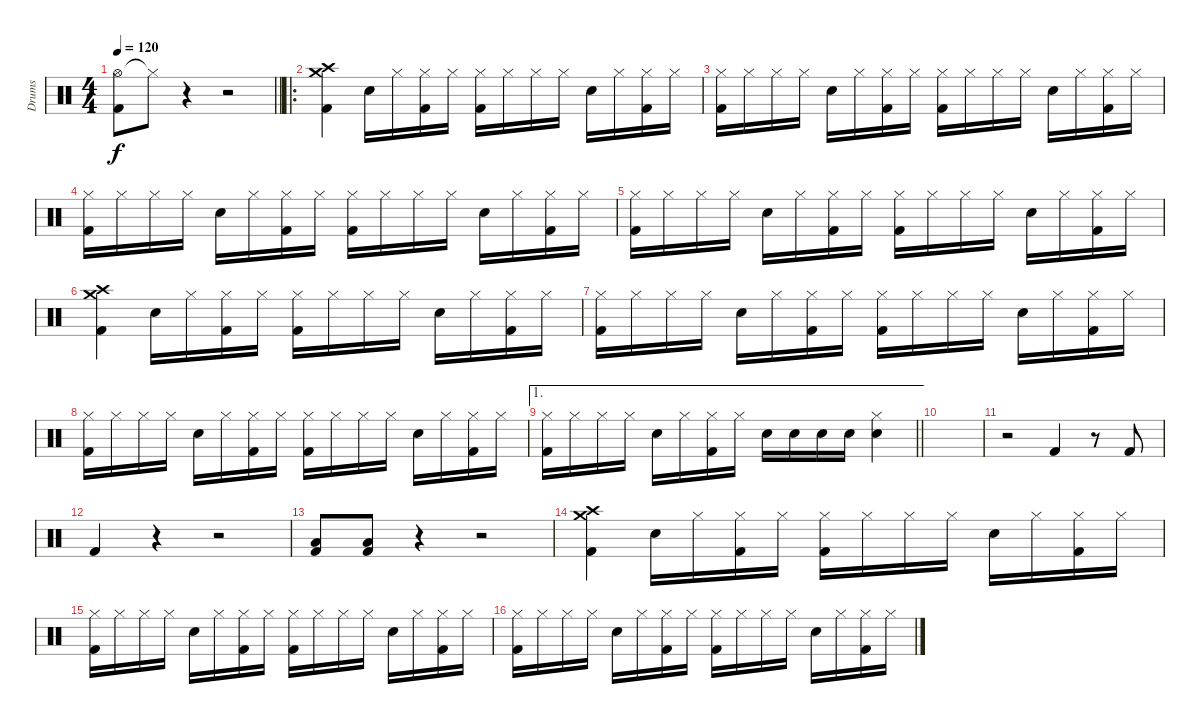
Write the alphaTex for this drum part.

\track ("Drums" "Drums") {instrument percussion}
\staff {score}
\articulation defaults
\ts (4 4)
\tempo 120
\clef neutral
\barLineRight lightlight
\ks c
("Hi-Hat (open)" "Kick (hit) 2").8{dy f} "Hi-Hat (closed)"{t}.8 r.4 r.2 |
\ro
("Crash medium (hit)" "Crash high (hit)" "Kick (hit) 2").4 "Snare (hit) 2".16 "Hi-Hat (closed)".16 ("Hi-Hat (closed)" "Kick (hit) 2").16 "Hi-Hat (closed)".16 ("Hi-Hat (closed)" "Kick (hit) 2").16 "Hi-Hat (closed)".16 "Hi-Hat (closed)".16 "Hi-Hat (closed)".16 "Snare (hit) 2".16 "Hi-Hat (closed)".16 ("Hi-Hat (closed)" "Kick (hit) 2").16 "Hi-Hat (closed)".16 |
("Hi-Hat (closed)" "Kick (hit) 2").16 "Hi-Hat (closed)".16 "Hi-Hat (closed)".16 "Hi-Hat (closed)".16 "Snare (hit) 2".16 "Hi-Hat (closed)".16 ("Hi-Hat (closed)" "Kick (hit) 2").16 "Hi-Hat (closed)".16 ("Hi-Hat (closed)" "Kick (hit) 2").16 "Hi-Hat (closed)".16 "Hi-Hat (closed)".16 "Hi-Hat (closed)".16 "Snare (hit) 2".16 "Hi-Hat (closed)".16 ("Hi-Hat (closed)" "Kick (hit) 2").16 "Hi-Hat (closed)".16 |
("Hi-Hat (closed)" "Kick (hit) 2").16 "Hi-Hat (closed)".16 "Hi-Hat (closed)".16 "Hi-Hat (closed)".16 "Snare (hit) 2".16 "Hi-Hat (closed)".16 ("Hi-Hat (closed)" "Kick (hit) 2").16 "Hi-Hat (closed)".16 ("Hi-Hat (closed)" "Kick (hit) 2").16 "Hi-Hat (closed)".16 "Hi-Hat (closed)".16 "Hi-Hat (closed)".16 "Snare (hit) 2".16 "Hi-Hat (closed)".16 ("Hi-Hat (closed)" "Kick (hit) 2").16 "Hi-Hat (closed)".16 |
("Hi-Hat (closed)" "Kick (hit) 2").16 "Hi-Hat (closed)".16 "Hi-Hat (closed)".16 "Hi-Hat (closed)".16 "Snare (hit) 2".16 "Hi-Hat (closed)".16 ("Hi-Hat (closed)" "Kick (hit) 2").16 "Hi-Hat (closed)".16 ("Hi-Hat (closed)" "Kick (hit) 2").16 "Hi-Hat (closed)".16 "Hi-Hat (closed)".16 "Hi-Hat (closed)".16 "Snare (hit) 2".16 "Hi-Hat (closed)".16 ("Hi-Hat (closed)" "Kick (hit) 2").16 "Hi-Hat (closed)".16 |
("Crash medium (hit)" "Crash high (hit)" "Kick (hit) 2").4 "Snare (hit) 2".16 "Hi-Hat (closed)".16 ("Hi-Hat (closed)" "Kick (hit) 2").16 "Hi-Hat (closed)".16 ("Hi-Hat (closed)" "Kick (hit) 2").16 "Hi-Hat (closed)".16 "Hi-Hat (closed)".16 "Hi-Hat (closed)".16 "Snare (hit) 2".16 "Hi-Hat (closed)".16 ("Hi-Hat (closed)" "Kick (hit) 2").16 "Hi-Hat (closed)".16 |
("Hi-Hat (closed)" "Kick (hit) 2").16 "Hi-Hat (closed)".16 "Hi-Hat (closed)".16 "Hi-Hat (closed)".16 "Snare (hit) 2".16 "Hi-Hat (closed)".16 ("Hi-Hat (closed)" "Kick (hit) 2").16 "Hi-Hat (closed)".16 ("Hi-Hat (closed)" "Kick (hit) 2").16 "Hi-Hat (closed)".16 "Hi-Hat (closed)".16 "Hi-Hat (closed)".16 "Snare (hit) 2".16 "Hi-Hat (closed)".16 ("Hi-Hat (closed)" "Kick (hit) 2").16 "Hi-Hat (closed)".16 |
("Hi-Hat (closed)" "Kick (hit) 2").16 "Hi-Hat (closed)".16 "Hi-Hat (closed)".16 "Hi-Hat (closed)".16 "Snare (hit) 2".16 "Hi-Hat (closed)".16 ("Hi-Hat (closed)" "Kick (hit) 2").16 "Hi-Hat (closed)".16 ("Hi-Hat (closed)" "Kick (hit) 2").16 "Hi-Hat (closed)".16 "Hi-Hat (closed)".16 "Hi-Hat (closed)".16 "Snare (hit) 2".16 "Hi-Hat (closed)".16 ("Hi-Hat (closed)" "Kick (hit) 2").16 "Hi-Hat (closed)".16 |
\ae 1
\barLineRight lightlight
("Hi-Hat (closed)" "Kick (hit) 2").16 "Hi-Hat (closed)".16 "Hi-Hat (closed)".16 "Hi-Hat (closed)".16 "Snare (hit) 2".16 "Hi-Hat (closed)".16 ("Hi-Hat (closed)" "Kick (hit) 2").16 "Hi-Hat (closed)".16 "Snare (hit) 2".16 "Snare (hit) 2".16 "Snare (hit) 2".16 "Snare (hit) 2".16 ("Hi-Hat (closed)" "Snare (hit) 2").4 |
|
r.2 "Kick (hit) 2".4 r.8 "Kick (hit) 2".8 |
"Kick (hit) 2".4 r.4 r.2 |
("Kick (hit) 2" "Low Floor Tom (hit)").8 ("Kick (hit) 2" "Low Floor Tom (hit)").8 r.4 r.2 |
("Crash medium (hit)" "Crash high (hit)" "Kick (hit) 2").4 "Snare (hit) 2".16 "Hi-Hat (closed)".16 ("Hi-Hat (closed)" "Kick (hit) 2").16 "Hi-Hat (closed)".16 ("Hi-Hat (closed)" "Kick (hit) 2").16 "Hi-Hat (closed)".16 "Hi-Hat (closed)".16 "Hi-Hat (closed)".16 "Snare (hit) 2".16 "Hi-Hat (closed)".16 ("Hi-Hat (closed)" "Kick (hit) 2").16 "Hi-Hat (closed)".16 |
("Hi-Hat (closed)" "Kick (hit) 2").16 "Hi-Hat (closed)".16 "Hi-Hat (closed)".16 "Hi-Hat (closed)".16 "Snare (hit) 2".16 "Hi-Hat (closed)".16 ("Hi-Hat (closed)" "Kick (hit) 2").16 "Hi-Hat (closed)".16 ("Hi-Hat (closed)" "Kick (hit) 2").16 "Hi-Hat (closed)".16 "Hi-Hat (closed)".16 "Hi-Hat (closed)".16 "Snare (hit) 2".16 "Hi-Hat (closed)".16 ("Hi-Hat (closed)" "Kick (hit) 2").16 "Hi-Hat (closed)".16 |
("Hi-Hat (closed)" "Kick (hit) 2").16 "Hi-Hat (closed)".16 "Hi-Hat (closed)".16 "Hi-Hat (closed)".16 "Snare (hit) 2".16 "Hi-Hat (closed)".16 ("Hi-Hat (closed)" "Kick (hit) 2").16 "Hi-Hat (closed)".16 ("Hi-Hat (closed)" "Kick (hit) 2").16 "Hi-Hat (closed)".16 "Hi-Hat (closed)".16 "Hi-Hat (closed)".16 "Snare (hit) 2".16 "Hi-Hat (closed)".16 ("Hi-Hat (closed)" "Kick (hit) 2").16 "Hi-Hat (closed)".16
